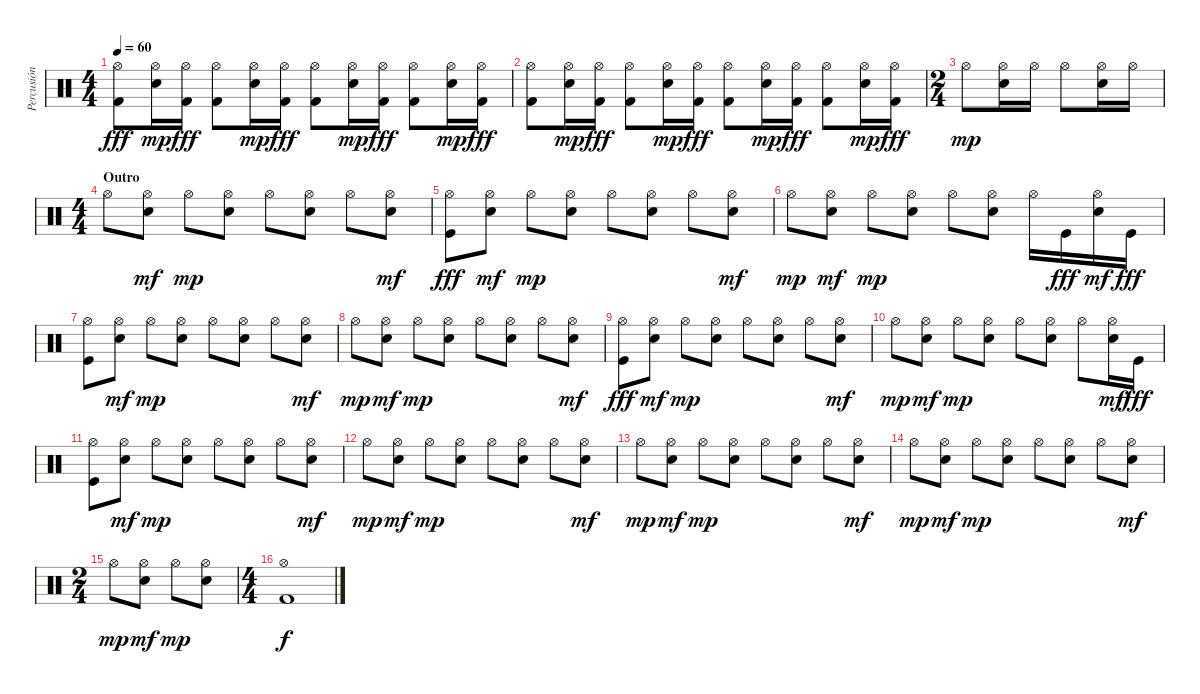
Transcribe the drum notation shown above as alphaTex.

\track ("Percusión" "Percusión") {instrument percussion}
\staff {score}
\articulation defaults
\ts (4 4)
\tempo 60
\clef neutral
\ks c
("Hi-Hat (open)" "Kick (hit) 2").8{dy fff} ("Hi-Hat (open)" "Snare (hit) 2").16{dy mp} ("Hi-Hat (open)" "Kick (hit) 2").16{dy fff} ("Hi-Hat (open)" "Kick (hit) 2").8 ("Hi-Hat (open)" "Snare (hit) 2").16{dy mp} ("Hi-Hat (open)" "Kick (hit) 2").16{dy fff} ("Hi-Hat (open)" "Kick (hit) 2").8 ("Hi-Hat (open)" "Snare (hit) 2").16{dy mp} ("Hi-Hat (open)" "Kick (hit) 2").16{dy fff} ("Hi-Hat (open)" "Kick (hit) 2").8 ("Hi-Hat (open)" "Snare (hit) 2").16{dy mp} ("Hi-Hat (open)" "Kick (hit) 2").16{dy fff} |
("Hi-Hat (open)" "Kick (hit) 2").8 ("Hi-Hat (open)" "Snare (hit) 2").16{dy mp} ("Hi-Hat (open)" "Kick (hit) 2").16{dy fff} ("Hi-Hat (open)" "Kick (hit) 2").8 ("Hi-Hat (open)" "Snare (hit) 2").16{dy mp} ("Hi-Hat (open)" "Kick (hit) 2").16{dy fff} ("Hi-Hat (open)" "Kick (hit) 2").8 ("Hi-Hat (open)" "Snare (hit) 2").16{dy mp} ("Hi-Hat (open)" "Kick (hit) 2").16{dy fff} ("Hi-Hat (open)" "Kick (hit) 2").8 ("Hi-Hat (open)" "Snare (hit) 2").16{dy mp} ("Hi-Hat (open)" "Kick (hit) 2").16{dy fff} |
\ts (2 4)
"Hi-Hat (open)".8{dy mp} ("Hi-Hat (open)" "Snare (hit) 2").16 "Hi-Hat (open)".16 "Hi-Hat (open)".8 ("Hi-Hat (open)" "Snare (hit) 2").16 "Hi-Hat (open)".16 |
\ts (4 4)
\section ("" "Outro")
"Hi-Hat (open)".8 ("Hi-Hat (open)" "Snare (hit) 2").8{dy mf} "Hi-Hat (open)".8{dy mp} ("Hi-Hat (open)" "Snare (hit) 2").8 "Hi-Hat (open)".8 ("Hi-Hat (open)" "Snare (hit) 2").8 "Hi-Hat (open)".8 ("Hi-Hat (open)" "Snare (hit) 2").8{dy mf} |
("Hi-Hat (open)" "Kick (hit)").8{dy fff} ("Hi-Hat (open)" "Snare (hit) 2").8{dy mf} "Hi-Hat (open)".8{dy mp} ("Hi-Hat (open)" "Snare (hit) 2").8 "Hi-Hat (open)".8 ("Hi-Hat (open)" "Snare (hit) 2").8 "Hi-Hat (open)".8 ("Hi-Hat (open)" "Snare (hit) 2").8{dy mf} |
"Hi-Hat (open)".8{dy mp} ("Hi-Hat (open)" "Snare (hit) 2").8{dy mf} "Hi-Hat (open)".8{dy mp} ("Hi-Hat (open)" "Snare (hit) 2").8 "Hi-Hat (open)".8 ("Hi-Hat (open)" "Snare (hit) 2").8 "Hi-Hat (open)".16 "Kick (hit)".16{dy fff} ("Hi-Hat (open)" "Snare (hit) 2").16{dy mf} "Kick (hit)".16{dy fff} |
("Hi-Hat (open)" "Kick (hit)").8 ("Hi-Hat (open)" "Snare (hit) 2").8{dy mf} "Hi-Hat (open)".8{dy mp} ("Hi-Hat (open)" "Snare (hit) 2").8 "Hi-Hat (open)".8 ("Hi-Hat (open)" "Snare (hit) 2").8 "Hi-Hat (open)".8 ("Hi-Hat (open)" "Snare (hit) 2").8{dy mf} |
"Hi-Hat (open)".8{dy mp} ("Hi-Hat (open)" "Snare (hit) 2").8{dy mf} "Hi-Hat (open)".8{dy mp} ("Hi-Hat (open)" "Snare (hit) 2").8 "Hi-Hat (open)".8 ("Hi-Hat (open)" "Snare (hit) 2").8 "Hi-Hat (open)".8 ("Hi-Hat (open)" "Snare (hit) 2").8{dy mf} |
("Hi-Hat (open)" "Kick (hit)").8{dy fff} ("Hi-Hat (open)" "Snare (hit) 2").8{dy mf} "Hi-Hat (open)".8{dy mp} ("Hi-Hat (open)" "Snare (hit) 2").8 "Hi-Hat (open)".8 ("Hi-Hat (open)" "Snare (hit) 2").8 "Hi-Hat (open)".8 ("Hi-Hat (open)" "Snare (hit) 2").8{dy mf} |
"Hi-Hat (open)".8{dy mp} ("Hi-Hat (open)" "Snare (hit) 2").8{dy mf} "Hi-Hat (open)".8{dy mp} ("Hi-Hat (open)" "Snare (hit) 2").8 "Hi-Hat (open)".8 ("Hi-Hat (open)" "Snare (hit) 2").8 "Hi-Hat (open)".8 ("Hi-Hat (open)" "Snare (hit) 2").16{dy mf} "Kick (hit)".16{dy fff} |
("Hi-Hat (open)" "Kick (hit)").8 ("Hi-Hat (open)" "Snare (hit) 2").8{dy mf} "Hi-Hat (open)".8{dy mp} ("Hi-Hat (open)" "Snare (hit) 2").8 "Hi-Hat (open)".8 ("Hi-Hat (open)" "Snare (hit) 2").8 "Hi-Hat (open)".8 ("Hi-Hat (open)" "Snare (hit) 2").8{dy mf} |
"Hi-Hat (open)".8{dy mp} ("Hi-Hat (open)" "Snare (hit) 2").8{dy mf} "Hi-Hat (open)".8{dy mp} ("Hi-Hat (open)" "Snare (hit) 2").8 "Hi-Hat (open)".8 ("Hi-Hat (open)" "Snare (hit) 2").8 "Hi-Hat (open)".8 ("Hi-Hat (open)" "Snare (hit) 2").8{dy mf} |
"Hi-Hat (open)".8{dy mp} ("Hi-Hat (open)" "Snare (hit) 2").8{dy mf} "Hi-Hat (open)".8{dy mp} ("Hi-Hat (open)" "Snare (hit) 2").8 "Hi-Hat (open)".8 ("Hi-Hat (open)" "Snare (hit) 2").8 "Hi-Hat (open)".8 ("Hi-Hat (open)" "Snare (hit) 2").8{dy mf} |
"Hi-Hat (open)".8{dy mp} ("Hi-Hat (open)" "Snare (hit) 2").8{dy mf} "Hi-Hat (open)".8{dy mp} ("Hi-Hat (open)" "Snare (hit) 2").8 "Hi-Hat (open)".8 ("Hi-Hat (open)" "Snare (hit) 2").8 "Hi-Hat (open)".8 ("Hi-Hat (open)" "Snare (hit) 2").8{dy mf} |
\ts (2 4)
"Hi-Hat (open)".8{dy mp} ("Hi-Hat (open)" "Snare (hit) 2").8{dy mf} "Hi-Hat (open)".8{dy mp} ("Hi-Hat (open)" "Snare (hit) 2").8 |
\ts (4 4)
("Hi-Hat (open)" "Kick (hit) 2").1{dy f}
